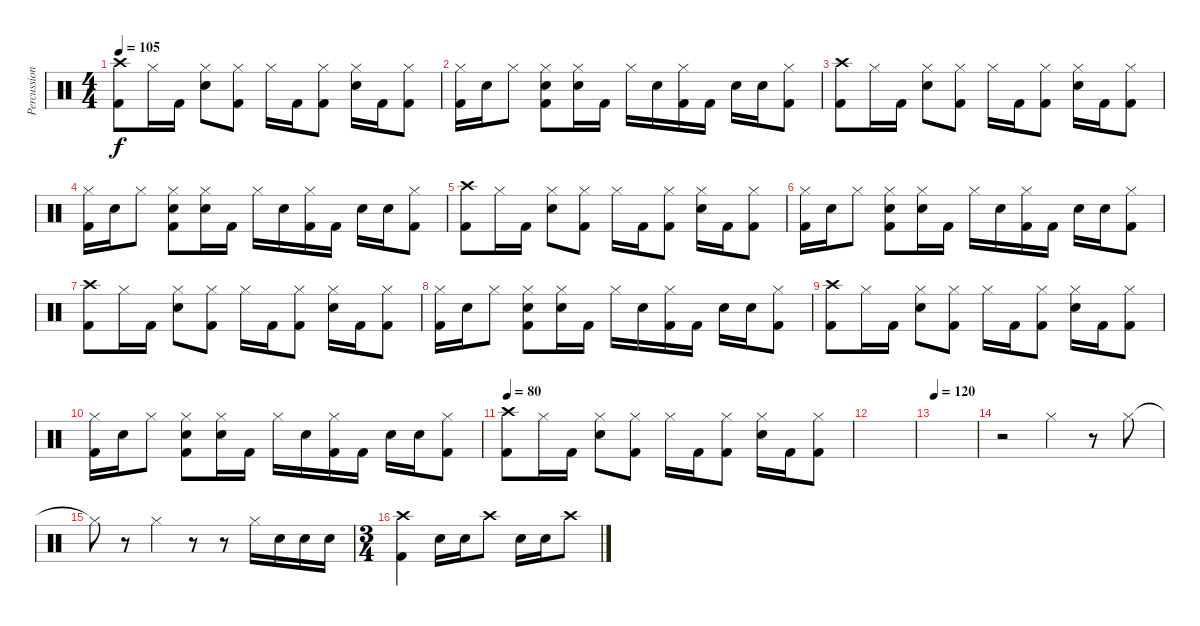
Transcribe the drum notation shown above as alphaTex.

\track ("Percussion" "Percussion") {instrument percussion}
\staff {score}
\articulation defaults
\ts (4 4)
\tempo 105
\clef neutral
\ks c
("Crash high (hit)" "Kick (hit) 2").8{dy f} "Hi-Hat (closed)".16 "Kick (hit) 2".16 ("Hi-Hat (closed)" "Electric Snare (hit)").8 ("Hi-Hat (closed)" "Kick (hit) 2").8 "Hi-Hat (closed)".16 "Kick (hit) 2".16 ("Hi-Hat (closed)" "Kick (hit) 2").8 ("Hi-Hat (closed)" "Electric Snare (hit)").16 "Kick (hit) 2".16 ("Hi-Hat (closed)" "Kick (hit) 2").8 |
("Hi-Hat (closed)" "Kick (hit) 2").16 "Electric Snare (hit)".16 "Hi-Hat (closed)".8 ("Hi-Hat (closed)" "Electric Snare (hit)" "Kick (hit) 2").8 ("Hi-Hat (closed)" "Electric Snare (hit)").16 "Kick (hit) 2".16 "Hi-Hat (closed)".16 "Electric Snare (hit)".16 ("Hi-Hat (closed)" "Kick (hit) 2").16 "Kick (hit) 2".16 "Electric Snare (hit)".16 "Electric Snare (hit)".16 ("Hi-Hat (closed)" "Kick (hit) 2").8 |
("Crash high (hit)" "Kick (hit) 2").8 "Hi-Hat (closed)".16 "Kick (hit) 2".16 ("Hi-Hat (closed)" "Electric Snare (hit)").8 ("Hi-Hat (closed)" "Kick (hit) 2").8 "Hi-Hat (closed)".16 "Kick (hit) 2".16 ("Hi-Hat (closed)" "Kick (hit) 2").8 ("Hi-Hat (closed)" "Electric Snare (hit)").16 "Kick (hit) 2".16 ("Hi-Hat (closed)" "Kick (hit) 2").8 |
("Hi-Hat (closed)" "Kick (hit) 2").16 "Electric Snare (hit)".16 "Hi-Hat (closed)".8 ("Hi-Hat (closed)" "Electric Snare (hit)" "Kick (hit) 2").8 ("Hi-Hat (closed)" "Electric Snare (hit)").16 "Kick (hit) 2".16 "Hi-Hat (closed)".16 "Electric Snare (hit)".16 ("Hi-Hat (closed)" "Kick (hit) 2").16 "Kick (hit) 2".16 "Electric Snare (hit)".16 "Electric Snare (hit)".16 ("Hi-Hat (closed)" "Kick (hit) 2").8 |
("Crash high (hit)" "Kick (hit) 2").8 "Hi-Hat (closed)".16 "Kick (hit) 2".16 ("Hi-Hat (closed)" "Electric Snare (hit)").8 ("Hi-Hat (closed)" "Kick (hit) 2").8 "Hi-Hat (closed)".16 "Kick (hit) 2".16 ("Hi-Hat (closed)" "Kick (hit) 2").8 ("Hi-Hat (closed)" "Electric Snare (hit)").16 "Kick (hit) 2".16 ("Hi-Hat (closed)" "Kick (hit) 2").8 |
("Hi-Hat (closed)" "Kick (hit) 2").16 "Electric Snare (hit)".16 "Hi-Hat (closed)".8 ("Hi-Hat (closed)" "Electric Snare (hit)" "Kick (hit) 2").8 ("Hi-Hat (closed)" "Electric Snare (hit)").16 "Kick (hit) 2".16 "Hi-Hat (closed)".16 "Electric Snare (hit)".16 ("Hi-Hat (closed)" "Kick (hit) 2").16 "Kick (hit) 2".16 "Electric Snare (hit)".16 "Electric Snare (hit)".16 ("Hi-Hat (closed)" "Kick (hit) 2").8 |
("Crash high (hit)" "Kick (hit) 2").8 "Hi-Hat (closed)".16 "Kick (hit) 2".16 ("Hi-Hat (closed)" "Electric Snare (hit)").8 ("Hi-Hat (closed)" "Kick (hit) 2").8 "Hi-Hat (closed)".16 "Kick (hit) 2".16 ("Hi-Hat (closed)" "Kick (hit) 2").8 ("Hi-Hat (closed)" "Electric Snare (hit)").16 "Kick (hit) 2".16 ("Hi-Hat (closed)" "Kick (hit) 2").8 |
("Hi-Hat (closed)" "Kick (hit) 2").16 "Electric Snare (hit)".16 "Hi-Hat (closed)".8 ("Hi-Hat (closed)" "Electric Snare (hit)" "Kick (hit) 2").8 ("Hi-Hat (closed)" "Electric Snare (hit)").16 "Kick (hit) 2".16 "Hi-Hat (closed)".16 "Electric Snare (hit)".16 ("Hi-Hat (closed)" "Kick (hit) 2").16 "Kick (hit) 2".16 "Electric Snare (hit)".16 "Electric Snare (hit)".16 ("Hi-Hat (closed)" "Kick (hit) 2").8 |
("Crash high (hit)" "Kick (hit) 2").8 "Hi-Hat (closed)".16 "Kick (hit) 2".16 ("Hi-Hat (closed)" "Electric Snare (hit)").8 ("Hi-Hat (closed)" "Kick (hit) 2").8 "Hi-Hat (closed)".16 "Kick (hit) 2".16 ("Hi-Hat (closed)" "Kick (hit) 2").8 ("Hi-Hat (closed)" "Electric Snare (hit)").16 "Kick (hit) 2".16 ("Hi-Hat (closed)" "Kick (hit) 2").8 |
("Hi-Hat (closed)" "Kick (hit) 2").16 "Electric Snare (hit)".16 "Hi-Hat (closed)".8 ("Hi-Hat (closed)" "Electric Snare (hit)" "Kick (hit) 2").8 ("Hi-Hat (closed)" "Electric Snare (hit)").16 "Kick (hit) 2".16 "Hi-Hat (closed)".16 "Electric Snare (hit)".16 ("Hi-Hat (closed)" "Kick (hit) 2").16 "Kick (hit) 2".16 "Electric Snare (hit)".16 "Electric Snare (hit)".16 ("Hi-Hat (closed)" "Kick (hit) 2").8 |
\tempo 80
("Crash high (hit)" "Kick (hit) 2").8 "Hi-Hat (closed)".16 "Kick (hit) 2".16 ("Hi-Hat (closed)" "Electric Snare (hit)").8 ("Hi-Hat (closed)" "Kick (hit) 2").8 "Hi-Hat (closed)".16 "Kick (hit) 2".16 ("Hi-Hat (closed)" "Kick (hit) 2").8 ("Hi-Hat (closed)" "Electric Snare (hit)").16 "Kick (hit) 2".16 ("Hi-Hat (closed)" "Kick (hit) 2").8 |
|
\tempo 120
|
r.2 "Hi-Hat (closed)".4 r.8 "Hi-Hat (closed)".8 |
"Hi-Hat (closed)"{t}.8 r.8 "Hi-Hat (closed)".4 r.8 r.8 "Hi-Hat (closed)".16 "Electric Snare (hit)".16 "Electric Snare (hit)".16 "Electric Snare (hit)".16 |
\ts (3 4)
("Crash high (hit)" "Kick (hit) 2").4 "Snare (hit) 2".16 "Snare (hit) 2".16 "Crash high (hit)".8 "Snare (hit) 2".16 "Snare (hit) 2".16 "Crash high (hit)".8
